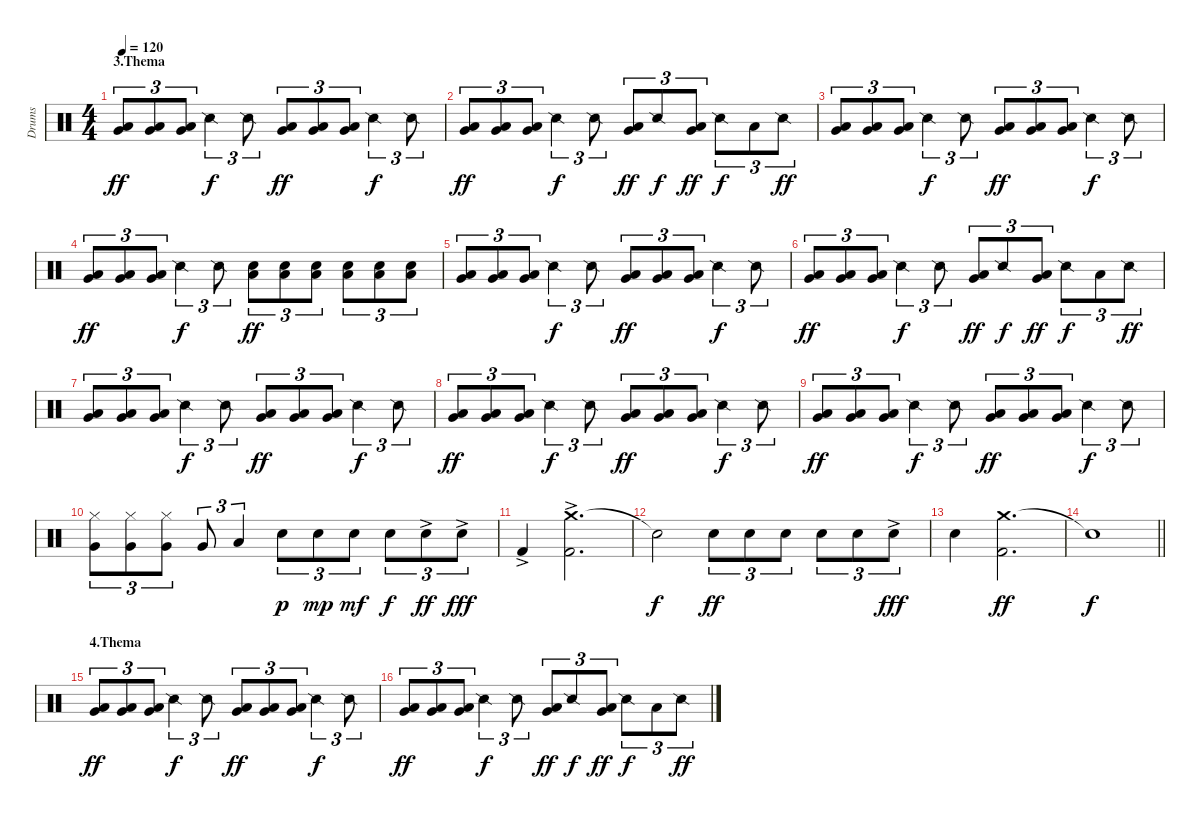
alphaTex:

\track ("Drums" "Drums") {instrument percussion}
\staff {score}
\articulation defaults
\ts (4 4)
\section ("" "3.Thema")
\tempo 120
\clef neutral
\ks c
("Very Low Tom (hit)" "Low Floor Tom (hit)").8{tu (3 2) dy ff} ("Very Low Tom (hit)" "Low Floor Tom (hit)").8{tu (3 2)} ("Very Low Tom (hit)" "Low Floor Tom (hit)").8{tu (3 2)} "Snare (side stick) 2".4{tu (3 2) dy f} "Snare (side stick) 2".8{tu (3 2)} ("Very Low Tom (hit)" "Low Floor Tom (hit)").8{tu (3 2) dy ff} ("Very Low Tom (hit)" "Low Floor Tom (hit)").8{tu (3 2)} ("Very Low Tom (hit)" "Low Floor Tom (hit)").8{tu (3 2)} "Snare (side stick) 2".4{tu (3 2) dy f} "Snare (side stick) 2".8{tu (3 2)} |
("Very Low Tom (hit)" "Low Floor Tom (hit)").8{tu (3 2) dy ff} ("Very Low Tom (hit)" "Low Floor Tom (hit)").8{tu (3 2)} ("Very Low Tom (hit)" "Low Floor Tom (hit)").8{tu (3 2)} "Snare (side stick) 2".4{tu (3 2) dy f} "Snare (side stick) 2".8{tu (3 2)} ("Very Low Tom (hit)" "Low Floor Tom (hit)").8{tu (3 2) dy ff} "Snare (side stick) 2".8{tu (3 2) dy f} ("Very Low Tom (hit)" "Low Floor Tom (hit)").8{tu (3 2) dy ff} "Snare (side stick) 2".8{tu (3 2) dy f} "Low Floor Tom (hit)".8{tu (3 2)} "Snare (side stick) 2".8{tu (3 2) dy ff} |
("Very Low Tom (hit)" "Low Floor Tom (hit)").8{tu (3 2)} ("Very Low Tom (hit)" "Low Floor Tom (hit)").8{tu (3 2)} ("Very Low Tom (hit)" "Low Floor Tom (hit)").8{tu (3 2)} "Snare (side stick) 2".4{tu (3 2) dy f} "Snare (side stick) 2".8{tu (3 2)} ("Very Low Tom (hit)" "Low Floor Tom (hit)").8{tu (3 2) dy ff} ("Very Low Tom (hit)" "Low Floor Tom (hit)").8{tu (3 2)} ("Very Low Tom (hit)" "Low Floor Tom (hit)").8{tu (3 2)} "Snare (side stick) 2".4{tu (3 2) dy f} "Snare (side stick) 2".8{tu (3 2)} |
("Very Low Tom (hit)" "Low Floor Tom (hit)").8{tu (3 2) dy ff} ("Very Low Tom (hit)" "Low Floor Tom (hit)").8{tu (3 2)} ("Very Low Tom (hit)" "Low Floor Tom (hit)").8{tu (3 2)} "Snare (side stick) 2".4{tu (3 2) dy f} "Snare (side stick) 2".8{tu (3 2)} ("Electric Snare (hit)" "Low Floor Tom (hit)").8{tu (3 2) dy ff} ("Electric Snare (hit)" "Low Floor Tom (hit)").8{tu (3 2)} ("Electric Snare (hit)" "Low Floor Tom (hit)").8{tu (3 2)} ("Electric Snare (hit)" "Low Floor Tom (hit)").8{tu (3 2)} ("Electric Snare (hit)" "Low Floor Tom (hit)").8{tu (3 2)} ("Electric Snare (hit)" "Low Floor Tom (hit)").8{tu (3 2)} |
("Very Low Tom (hit)" "Low Floor Tom (hit)").8{tu (3 2)} ("Very Low Tom (hit)" "Low Floor Tom (hit)").8{tu (3 2)} ("Very Low Tom (hit)" "Low Floor Tom (hit)").8{tu (3 2)} "Snare (side stick) 2".4{tu (3 2) dy f} "Snare (side stick) 2".8{tu (3 2)} ("Very Low Tom (hit)" "Low Floor Tom (hit)").8{tu (3 2) dy ff} ("Very Low Tom (hit)" "Low Floor Tom (hit)").8{tu (3 2)} ("Very Low Tom (hit)" "Low Floor Tom (hit)").8{tu (3 2)} "Snare (side stick) 2".4{tu (3 2) dy f} "Snare (side stick) 2".8{tu (3 2)} |
("Very Low Tom (hit)" "Low Floor Tom (hit)").8{tu (3 2) dy ff} ("Very Low Tom (hit)" "Low Floor Tom (hit)").8{tu (3 2)} ("Very Low Tom (hit)" "Low Floor Tom (hit)").8{tu (3 2)} "Snare (side stick) 2".4{tu (3 2) dy f} "Snare (side stick) 2".8{tu (3 2)} ("Very Low Tom (hit)" "Low Floor Tom (hit)").8{tu (3 2) dy ff} "Snare (side stick) 2".8{tu (3 2) dy f} ("Very Low Tom (hit)" "Low Floor Tom (hit)").8{tu (3 2) dy ff} "Snare (side stick) 2".8{tu (3 2) dy f} "Low Floor Tom (hit)".8{tu (3 2)} "Snare (side stick) 2".8{tu (3 2) dy ff} |
("Very Low Tom (hit)" "Low Floor Tom (hit)").8{tu (3 2)} ("Very Low Tom (hit)" "Low Floor Tom (hit)").8{tu (3 2)} ("Very Low Tom (hit)" "Low Floor Tom (hit)").8{tu (3 2)} "Snare (side stick) 2".4{tu (3 2) dy f} "Snare (side stick) 2".8{tu (3 2)} ("Very Low Tom (hit)" "Low Floor Tom (hit)").8{tu (3 2) dy ff} ("Very Low Tom (hit)" "Low Floor Tom (hit)").8{tu (3 2)} ("Very Low Tom (hit)" "Low Floor Tom (hit)").8{tu (3 2)} "Snare (side stick) 2".4{tu (3 2) dy f} "Snare (side stick) 2".8{tu (3 2)} |
("Very Low Tom (hit)" "Low Floor Tom (hit)").8{tu (3 2) dy ff} ("Very Low Tom (hit)" "Low Floor Tom (hit)").8{tu (3 2)} ("Very Low Tom (hit)" "Low Floor Tom (hit)").8{tu (3 2)} "Snare (side stick) 2".4{tu (3 2) dy f} "Snare (side stick) 2".8{tu (3 2)} ("Very Low Tom (hit)" "Low Floor Tom (hit)").8{tu (3 2) dy ff} ("Very Low Tom (hit)" "Low Floor Tom (hit)").8{tu (3 2)} ("Very Low Tom (hit)" "Low Floor Tom (hit)").8{tu (3 2)} "Snare (side stick) 2".4{tu (3 2) dy f} "Snare (side stick) 2".8{tu (3 2)} |
("Very Low Tom (hit)" "Low Floor Tom (hit)").8{tu (3 2) dy ff} ("Very Low Tom (hit)" "Low Floor Tom (hit)").8{tu (3 2)} ("Very Low Tom (hit)" "Low Floor Tom (hit)").8{tu (3 2)} "Snare (side stick) 2".4{tu (3 2) dy f} "Snare (side stick) 2".8{tu (3 2)} ("Very Low Tom (hit)" "Low Floor Tom (hit)").8{tu (3 2) dy ff} ("Very Low Tom (hit)" "Low Floor Tom (hit)").8{tu (3 2)} ("Very Low Tom (hit)" "Low Floor Tom (hit)").8{tu (3 2)} "Snare (side stick) 2".4{tu (3 2) dy f} "Snare (side stick) 2".8{tu (3 2)} |
("Hi-Hat (closed)" "Very Low Tom (hit)").8{tu (3 2)} ("Hi-Hat (closed)" "Very Low Tom (hit)").8{tu (3 2)} ("Hi-Hat (closed)" "Very Low Tom (hit)").8{tu (3 2)} "Very Low Tom (hit)".8{tu (3 2)} "Low Floor Tom (hit)".4{tu (3 2)} "Electric Snare (hit)".8{tu (3 2) dy p} "Electric Snare (hit)".8{tu (3 2) dy mp} "Electric Snare (hit)".8{tu (3 2) dy mf} "Electric Snare (hit)".8{tu (3 2) dy f} "Electric Snare (hit)"{ac}.8{tu (3 2) dy ff} "Electric Snare (hit)"{ac}.8{tu (3 2) dy fff} |
"Kick (hit) 2"{ac}.4 ("Crash medium (hit)"{ac} "Kick (hit) 2"{ac}).2{d} |
"Snare (hit)"{t}.2{dy f} "Electric Snare (hit)".8{tu (3 2) dy ff} "Electric Snare (hit)".8{tu (3 2)} "Electric Snare (hit)".8{tu (3 2)} "Electric Snare (hit)".8{tu (3 2)} "Electric Snare (hit)".8{tu (3 2)} "Electric Snare (hit)"{ac}.8{tu (3 2) dy fff} |
"Electric Snare (hit)".4 ("Crash medium (hit)" "Kick (hit) 2").2{d dy ff} |
\barLineRight lightlight "Snare (hit)"{t}.1{dy f}
|
\section ("" "4.Thema")
("Very Low Tom (hit)" "Low Floor Tom (hit)").8{tu (3 2) dy ff} ("Very Low Tom (hit)" "Low Floor Tom (hit)").8{tu (3 2)} ("Very Low Tom (hit)" "Low Floor Tom (hit)").8{tu (3 2)} "Snare (side stick) 2".4{tu (3 2) dy f} "Snare (side stick) 2".8{tu (3 2)} ("Very Low Tom (hit)" "Low Floor Tom (hit)").8{tu (3 2) dy ff} ("Very Low Tom (hit)" "Low Floor Tom (hit)").8{tu (3 2)} ("Very Low Tom (hit)" "Low Floor Tom (hit)").8{tu (3 2)} "Snare (side stick) 2".4{tu (3 2) dy f} "Snare (side stick) 2".8{tu (3 2)} |
("Very Low Tom (hit)" "Low Floor Tom (hit)").8{tu (3 2) dy ff} ("Very Low Tom (hit)" "Low Floor Tom (hit)").8{tu (3 2)} ("Very Low Tom (hit)" "Low Floor Tom (hit)").8{tu (3 2)} "Snare (side stick) 2".4{tu (3 2) dy f} "Snare (side stick) 2".8{tu (3 2)} ("Very Low Tom (hit)" "Low Floor Tom (hit)").8{tu (3 2) dy ff} "Snare (side stick) 2".8{tu (3 2) dy f} ("Very Low Tom (hit)" "Low Floor Tom (hit)").8{tu (3 2) dy ff} "Snare (side stick) 2".8{tu (3 2) dy f} "Low Floor Tom (hit)".8{tu (3 2)} "Snare (side stick) 2".8{tu (3 2) dy ff}
